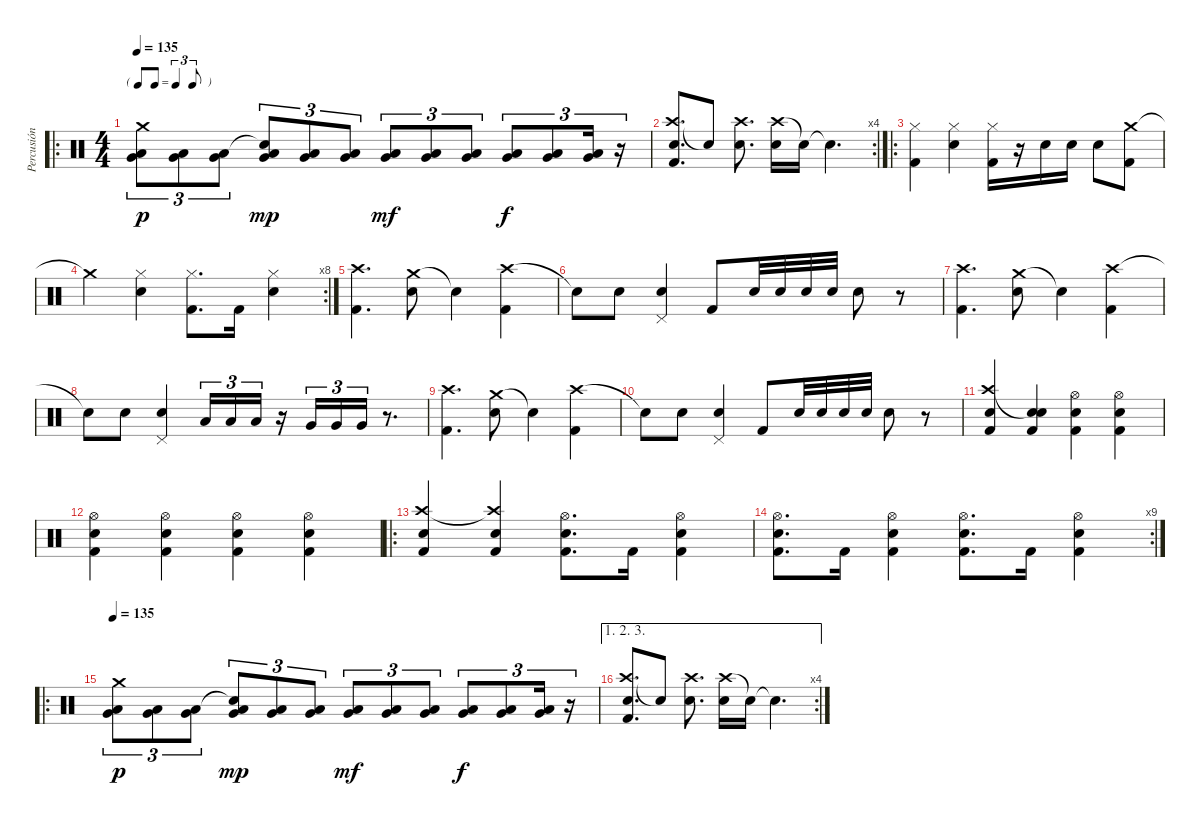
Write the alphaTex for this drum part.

\track ("Percusión" "Percusión") {instrument percussion}
\staff {score}
\articulation defaults
\ro
\ts (4 4)
\tf triplet8th
\tempo 135
\clef neutral
\ks c
("Crash medium (hit)" "Low Floor Tom (hit)" "Very Low Tom (hit)").8{tu (3 2) dy p} ("Low Floor Tom (hit)" "Very Low Tom (hit)").8{tu (3 2)} ("Low Floor Tom (hit)" "Very Low Tom (hit)").8{tu (3 2)} ("Snare (hit)"{t} "Low Floor Tom (hit)" "Very Low Tom (hit)").8{tu (3 2) dy mp} ("Low Floor Tom (hit)" "Very Low Tom (hit)").8{tu (3 2)} ("Low Floor Tom (hit)" "Very Low Tom (hit)").8{tu (3 2)} ("Low Floor Tom (hit)" "Very Low Tom (hit)").8{tu (3 2) dy mf} ("Low Floor Tom (hit)" "Very Low Tom (hit)").8{tu (3 2)} ("Low Floor Tom (hit)" "Very Low Tom (hit)").8{tu (3 2)} ("Low Floor Tom (hit)" "Very Low Tom (hit)").8{tu (3 2) dy f} ("Low Floor Tom (hit)" "Very Low Tom (hit)").8{tu (3 2)} ("Low Floor Tom (hit)" "Very Low Tom (hit)").16{tu (3 2)} r.16{tu (3 2)} |
\rc 4
("Crash high (hit)" "Kick (hit) 2" "Snare (hit) 2").8{d} "Snare (hit)"{t}.8 ("Crash high (hit)" "Snare (hit) 2").8{d} ("Crash high (hit)" "Snare (hit) 2").16 "Snare (hit)"{t}.16 "Snare (hit)"{t}.4{d} |
\ro
("Hi-Hat (closed)" "Kick (hit) 2").4 ("Hi-Hat (closed)" "Snare (hit) 2").4 ("Hi-Hat (closed)" "Kick (hit) 2").16 r.16 "Snare (hit) 2".16 "Snare (hit) 2".16 "Snare (hit) 2".8 ("Crash medium (hit)" "Kick (hit) 2").8 |
\rc 8 "Crash medium (hit)"{t}.4
("Hi-Hat (closed)" "Snare (hit) 2").4 ("Hi-Hat (closed)" "Kick (hit) 2").8{d} "Kick (hit) 2".16 ("Hi-Hat (closed)" "Snare (hit) 2").4 |
("Crash high (hit)" "Kick (hit) 2").4{d} ("Crash medium (hit)" "Snare (hit) 2").8 "Snare (hit)"{t}.4 ("Crash high (hit)" "Kick (hit) 2").4 |
"Snare (hit)"{t}.8 "Snare (hit) 2".8 ("Pedal Hi-Hat (hit)" "Snare (hit) 2").4 "Kick (hit) 2".8 "Snare (hit) 2".32 "Snare (hit) 2".32 "Snare (hit) 2".32 "Snare (hit) 2".32 "Snare (hit) 2".8 r.8 |
("Crash high (hit)" "Kick (hit) 2").4{d} ("Crash medium (hit)" "Snare (hit) 2").8 "Snare (hit)"{t}.4 ("Crash high (hit)" "Kick (hit) 2").4 |
"Snare (hit)"{t}.8 "Snare (hit) 2".8 ("Pedal Hi-Hat (hit)" "Snare (hit) 2").4 "Low Floor Tom (hit)".16{tu (3 2)} "Low Floor Tom (hit)".16{tu (3 2)} "Low Floor Tom (hit)".16{tu (3 2)} r.16 "Very Low Tom (hit)".16{tu (3 2)} "Very Low Tom (hit)".16{tu (3 2)} "Very Low Tom (hit)".16{tu (3 2)} r.8{d} |
("Crash high (hit)" "Kick (hit) 2").4{d} ("Crash medium (hit)" "Snare (hit) 2").8 "Snare (hit)"{t}.4 ("Crash high (hit)" "Kick (hit) 2").4 |
"Snare (hit)"{t}.8 "Snare (hit) 2".8 ("Pedal Hi-Hat (hit)" "Snare (hit) 2").4 "Kick (hit) 2".8 "Snare (hit) 2".32 "Snare (hit) 2".32 "Snare (hit) 2".32 "Snare (hit) 2".32 "Snare (hit) 2".8 r.8 |
("Crash high (hit)" "Kick (hit) 2" "Snare (hit) 2").4 ("Snare (hit)"{t} "Kick (hit) 2" "Snare (hit) 2").4 ("Hi-Hat (open)" "Kick (hit) 2" "Snare (hit) 2").4 ("Hi-Hat (open)" "Kick (hit) 2" "Snare (hit) 2").4 |
("Hi-Hat (open)" "Kick (hit) 2" "Snare (hit) 2").4 ("Hi-Hat (open)" "Kick (hit) 2" "Snare (hit) 2").4 ("Hi-Hat (open)" "Kick (hit) 2" "Snare (hit) 2").4 ("Hi-Hat (open)" "Kick (hit) 2" "Snare (hit) 2").4 |
\ro
("Crash high (hit)" "Kick (hit) 2" "Snare (hit) 2").4 ("Crash high (hit)"{t} "Kick (hit) 2" "Snare (hit) 2").4 ("Hi-Hat (open)" "Kick (hit) 2" "Snare (hit) 2").8{d} "Kick (hit) 2".16 ("Hi-Hat (open)" "Kick (hit) 2" "Snare (hit) 2").4 |
\rc 9
("Hi-Hat (open)" "Kick (hit) 2" "Snare (hit) 2").8{d} "Kick (hit) 2".16 ("Hi-Hat (open)" "Kick (hit) 2" "Snare (hit) 2").4 ("Hi-Hat (open)" "Kick (hit) 2" "Snare (hit) 2").8{d} "Kick (hit) 2".16 ("Hi-Hat (open)" "Kick (hit) 2" "Snare (hit) 2").4 |
\ro
\tempo 135
("Crash medium (hit)" "Low Floor Tom (hit)" "Very Low Tom (hit)").8{tu (3 2) dy p} ("Low Floor Tom (hit)" "Very Low Tom (hit)").8{tu (3 2)} ("Low Floor Tom (hit)" "Very Low Tom (hit)").8{tu (3 2)} ("Snare (hit)"{t} "Low Floor Tom (hit)" "Very Low Tom (hit)").8{tu (3 2) dy mp} ("Low Floor Tom (hit)" "Very Low Tom (hit)").8{tu (3 2)} ("Low Floor Tom (hit)" "Very Low Tom (hit)").8{tu (3 2)} ("Low Floor Tom (hit)" "Very Low Tom (hit)").8{tu (3 2) dy mf} ("Low Floor Tom (hit)" "Very Low Tom (hit)").8{tu (3 2)} ("Low Floor Tom (hit)" "Very Low Tom (hit)").8{tu (3 2)} ("Low Floor Tom (hit)" "Very Low Tom (hit)").8{tu (3 2) dy f} ("Low Floor Tom (hit)" "Very Low Tom (hit)").8{tu (3 2)} ("Low Floor Tom (hit)" "Very Low Tom (hit)").16{tu (3 2)} r.16{tu (3 2)} |
\ae (1 2 3)
\rc 4
("Crash high (hit)" "Kick (hit) 2" "Snare (hit) 2").8{d} "Snare (hit)"{t}.8 ("Crash high (hit)" "Snare (hit) 2").8{d} ("Crash high (hit)" "Snare (hit) 2").16 "Snare (hit)"{t}.16 "Snare (hit)"{t}.4{d}
